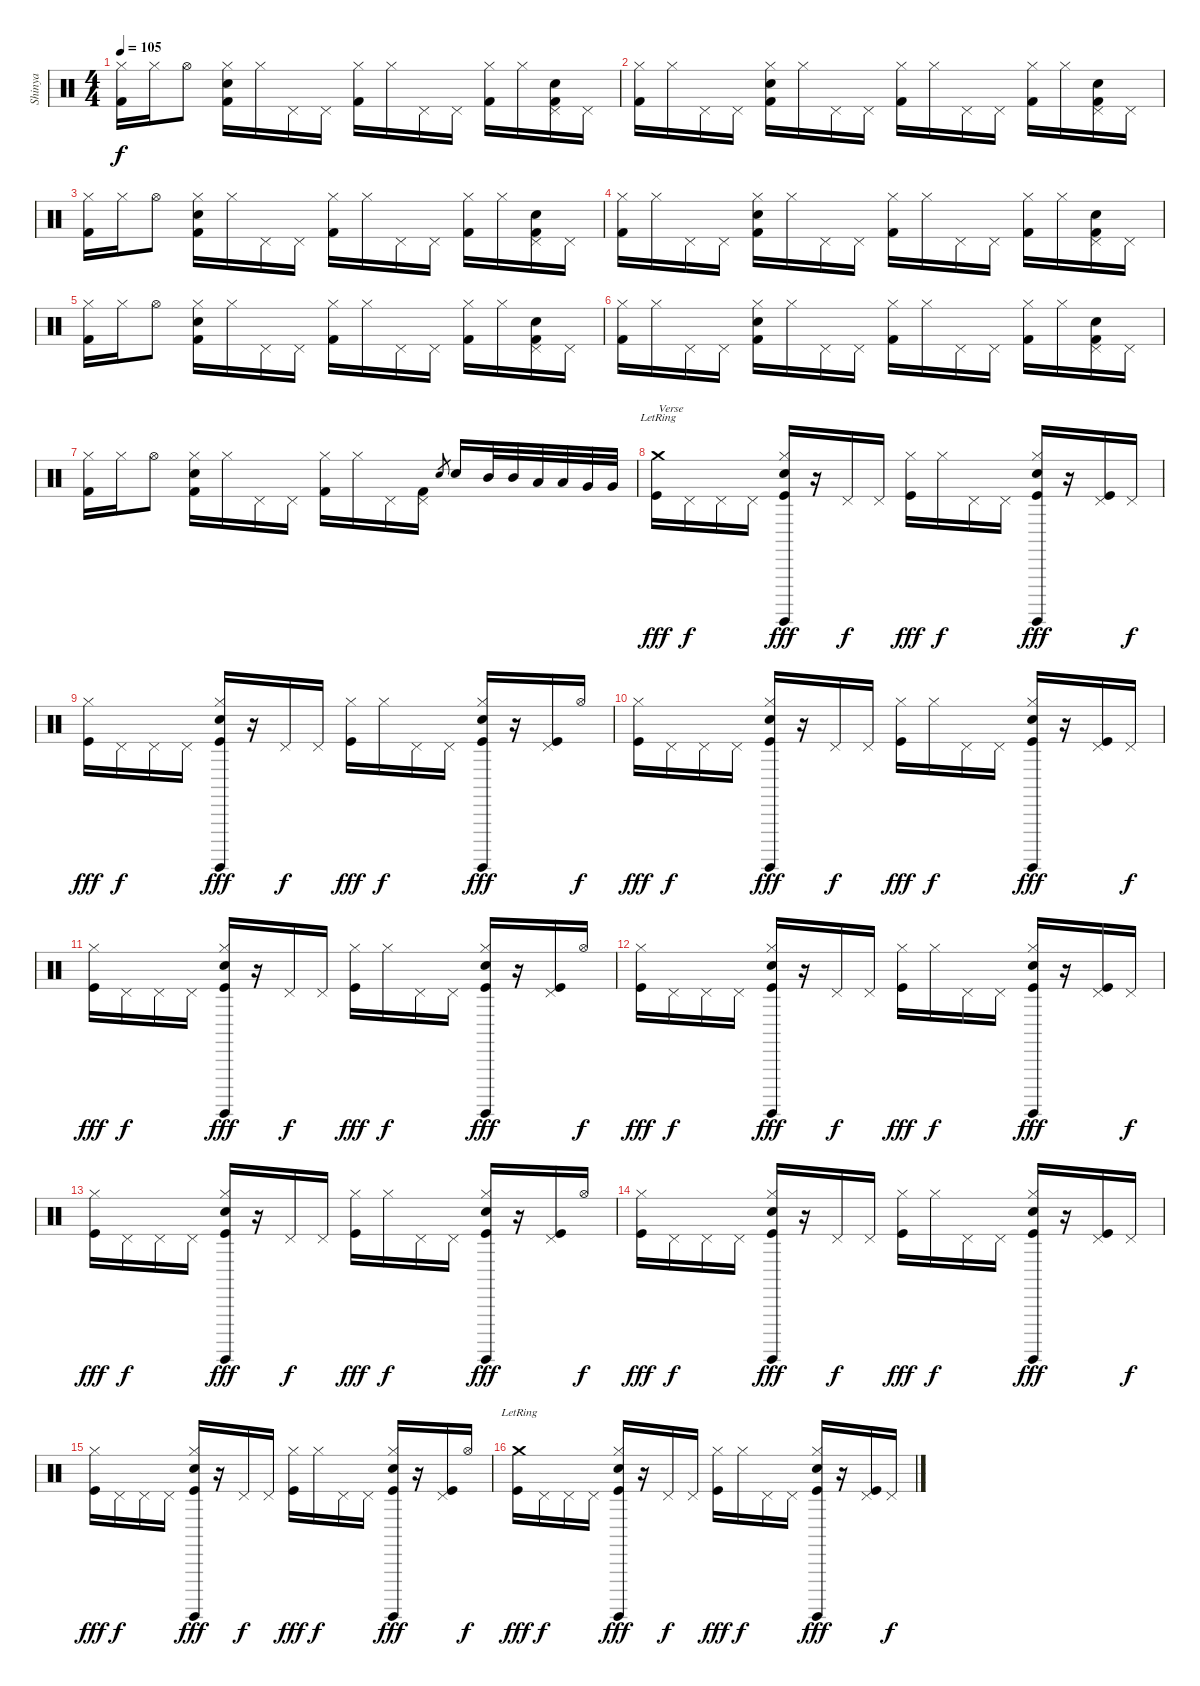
\track ("Shinya" "Shinya") {instrument percussion}
\staff {score}
\articulation defaults
\ts (4 4)
\tempo 105
\clef neutral
\ks c
("Hi-Hat (closed)" "Kick (hit) 2").16{dy f} "Hi-Hat (closed)".16 "Hi-Hat (open)".8 ("Hi-Hat (closed)" "Electric Snare (hit)" "Kick (hit) 2").16 "Hi-Hat (closed)".16 "Pedal Hi-Hat (hit)".16 "Pedal Hi-Hat (hit)".16 ("Hi-Hat (closed)" "Kick (hit) 2").16 "Hi-Hat (closed)".16 "Pedal Hi-Hat (hit)".16 "Pedal Hi-Hat (hit)".16 ("Hi-Hat (closed)" "Kick (hit) 2").16 "Hi-Hat (closed)".16 ("Pedal Hi-Hat (hit)" "Electric Snare (hit)" "Kick (hit) 2").16 "Pedal Hi-Hat (hit)".16 |
("Hi-Hat (closed)" "Kick (hit) 2").16 "Hi-Hat (closed)".16 "Pedal Hi-Hat (hit)".16 "Pedal Hi-Hat (hit)".16 ("Hi-Hat (closed)" "Electric Snare (hit)" "Kick (hit) 2").16 "Hi-Hat (closed)".16 "Pedal Hi-Hat (hit)".16 "Pedal Hi-Hat (hit)".16 ("Hi-Hat (closed)" "Kick (hit) 2").16 "Hi-Hat (closed)".16 "Pedal Hi-Hat (hit)".16 "Pedal Hi-Hat (hit)".16 ("Hi-Hat (closed)" "Kick (hit) 2").16 "Hi-Hat (closed)".16 ("Pedal Hi-Hat (hit)" "Electric Snare (hit)" "Kick (hit) 2").16 "Pedal Hi-Hat (hit)".16 |
("Hi-Hat (closed)" "Kick (hit) 2").16 "Hi-Hat (closed)".16 "Hi-Hat (open)".8 ("Hi-Hat (closed)" "Electric Snare (hit)" "Kick (hit) 2").16 "Hi-Hat (closed)".16 "Pedal Hi-Hat (hit)".16 "Pedal Hi-Hat (hit)".16 ("Hi-Hat (closed)" "Kick (hit) 2").16 "Hi-Hat (closed)".16 "Pedal Hi-Hat (hit)".16 "Pedal Hi-Hat (hit)".16 ("Hi-Hat (closed)" "Kick (hit) 2").16 "Hi-Hat (closed)".16 ("Pedal Hi-Hat (hit)" "Electric Snare (hit)" "Kick (hit) 2").16 "Pedal Hi-Hat (hit)".16 |
("Hi-Hat (closed)" "Kick (hit) 2").16 "Hi-Hat (closed)".16 "Pedal Hi-Hat (hit)".16 "Pedal Hi-Hat (hit)".16 ("Hi-Hat (closed)" "Electric Snare (hit)" "Kick (hit) 2").16 "Hi-Hat (closed)".16 "Pedal Hi-Hat (hit)".16 "Pedal Hi-Hat (hit)".16 ("Hi-Hat (closed)" "Kick (hit) 2").16 "Hi-Hat (closed)".16 "Pedal Hi-Hat (hit)".16 "Pedal Hi-Hat (hit)".16 ("Hi-Hat (closed)" "Kick (hit) 2").16 "Hi-Hat (closed)".16 ("Pedal Hi-Hat (hit)" "Electric Snare (hit)" "Kick (hit) 2").16 "Pedal Hi-Hat (hit)".16 |
("Hi-Hat (closed)" "Kick (hit) 2").16 "Hi-Hat (closed)".16 "Hi-Hat (open)".8 ("Hi-Hat (closed)" "Electric Snare (hit)" "Kick (hit) 2").16 "Hi-Hat (closed)".16 "Pedal Hi-Hat (hit)".16 "Pedal Hi-Hat (hit)".16 ("Hi-Hat (closed)" "Kick (hit) 2").16 "Hi-Hat (closed)".16 "Pedal Hi-Hat (hit)".16 "Pedal Hi-Hat (hit)".16 ("Hi-Hat (closed)" "Kick (hit) 2").16 "Hi-Hat (closed)".16 ("Pedal Hi-Hat (hit)" "Electric Snare (hit)" "Kick (hit) 2").16 "Pedal Hi-Hat (hit)".16 |
("Hi-Hat (closed)" "Kick (hit) 2").16 "Hi-Hat (closed)".16 "Pedal Hi-Hat (hit)".16 "Pedal Hi-Hat (hit)".16 ("Hi-Hat (closed)" "Electric Snare (hit)" "Kick (hit) 2").16 "Hi-Hat (closed)".16 "Pedal Hi-Hat (hit)".16 "Pedal Hi-Hat (hit)".16 ("Hi-Hat (closed)" "Kick (hit) 2").16 "Hi-Hat (closed)".16 "Pedal Hi-Hat (hit)".16 "Pedal Hi-Hat (hit)".16 ("Hi-Hat (closed)" "Kick (hit) 2").16 "Hi-Hat (closed)".16 ("Pedal Hi-Hat (hit)" "Electric Snare (hit)" "Kick (hit) 2").16 "Pedal Hi-Hat (hit)".16 |
("Hi-Hat (closed)" "Kick (hit) 2").16 "Hi-Hat (closed)".16 "Hi-Hat (open)".8 ("Hi-Hat (closed)" "Electric Snare (hit)" "Kick (hit) 2").16 "Hi-Hat (closed)".16 "Pedal Hi-Hat (hit)".16 "Pedal Hi-Hat (hit)".16 ("Hi-Hat (closed)" "Kick (hit) 2").16 "Hi-Hat (closed)".16 "Pedal Hi-Hat (hit)".16 ("Pedal Hi-Hat (hit)" "Kick (hit) 2").16 "Electric Snare (hit)".8{gr} "Electric Snare (hit)".16 "Mid Tom (hit)".32 "Mid Tom (hit)".32 "Low Tom (hit)".32 "Low Tom (hit)".32 "Very Low Tom (hit)".32 "Very Low Tom (hit)".32 |
\section ("" "")
("Crash medium (hit)"{lr} "Kick (hit)").16{txt "Verse" dy fff} "Pedal Hi-Hat (hit)".16{dy f} "Pedal Hi-Hat (hit)".16 "Pedal Hi-Hat (hit)".16 ("Hi-Hat (closed)" "Surdo (hit)" "Electric Snare (hit)" "Kick (hit)").16{dy fff} r.16 "Pedal Hi-Hat (hit)".16{dy f} "Pedal Hi-Hat (hit)".16 ("Hi-Hat (closed)" "Kick (hit)").16{dy fff} "Hi-Hat (closed)".16{dy f} "Pedal Hi-Hat (hit)".16 "Pedal Hi-Hat (hit)".16 ("Hi-Hat (closed)" "Surdo (hit)" "Electric Snare (hit)" "Kick (hit)").16{dy fff} r.16 ("Pedal Hi-Hat (hit)" "Kick (hit)").16 "Pedal Hi-Hat (hit)".16{dy f} |
("Hi-Hat (closed)" "Kick (hit)").16{dy fff} "Pedal Hi-Hat (hit)".16{dy f} "Pedal Hi-Hat (hit)".16 "Pedal Hi-Hat (hit)".16 ("Hi-Hat (closed)" "Surdo (hit)" "Electric Snare (hit)" "Kick (hit)").16{dy fff} r.16 "Pedal Hi-Hat (hit)".16{dy f} "Pedal Hi-Hat (hit)".16 ("Hi-Hat (closed)" "Kick (hit)").16{dy fff} "Hi-Hat (closed)".16{dy f} "Pedal Hi-Hat (hit)".16 "Pedal Hi-Hat (hit)".16 ("Hi-Hat (closed)" "Surdo (hit)" "Electric Snare (hit)" "Kick (hit)").16{dy fff} r.16 ("Pedal Hi-Hat (hit)" "Kick (hit)").16 "Hi-Hat (open)".16{dy f} |
("Hi-Hat (closed)" "Kick (hit)").16{dy fff} "Pedal Hi-Hat (hit)".16{dy f} "Pedal Hi-Hat (hit)".16 "Pedal Hi-Hat (hit)".16 ("Hi-Hat (closed)" "Surdo (hit)" "Electric Snare (hit)" "Kick (hit)").16{dy fff} r.16 "Pedal Hi-Hat (hit)".16{dy f} "Pedal Hi-Hat (hit)".16 ("Hi-Hat (closed)" "Kick (hit)").16{dy fff} "Hi-Hat (closed)".16{dy f} "Pedal Hi-Hat (hit)".16 "Pedal Hi-Hat (hit)".16 ("Hi-Hat (closed)" "Surdo (hit)" "Electric Snare (hit)" "Kick (hit)").16{dy fff} r.16 ("Pedal Hi-Hat (hit)" "Kick (hit)").16 "Pedal Hi-Hat (hit)".16{dy f} |
("Hi-Hat (closed)" "Kick (hit)").16{dy fff} "Pedal Hi-Hat (hit)".16{dy f} "Pedal Hi-Hat (hit)".16 "Pedal Hi-Hat (hit)".16 ("Hi-Hat (closed)" "Surdo (hit)" "Electric Snare (hit)" "Kick (hit)").16{dy fff} r.16 "Pedal Hi-Hat (hit)".16{dy f} "Pedal Hi-Hat (hit)".16 ("Hi-Hat (closed)" "Kick (hit)").16{dy fff} "Hi-Hat (closed)".16{dy f} "Pedal Hi-Hat (hit)".16 "Pedal Hi-Hat (hit)".16 ("Hi-Hat (closed)" "Surdo (hit)" "Electric Snare (hit)" "Kick (hit)").16{dy fff} r.16 ("Pedal Hi-Hat (hit)" "Kick (hit)").16 "Hi-Hat (open)".16{dy f} |
("Hi-Hat (closed)" "Kick (hit)").16{dy fff} "Pedal Hi-Hat (hit)".16{dy f} "Pedal Hi-Hat (hit)".16 "Pedal Hi-Hat (hit)".16 ("Hi-Hat (closed)" "Surdo (hit)" "Electric Snare (hit)" "Kick (hit)").16{dy fff} r.16 "Pedal Hi-Hat (hit)".16{dy f} "Pedal Hi-Hat (hit)".16 ("Hi-Hat (closed)" "Kick (hit)").16{dy fff} "Hi-Hat (closed)".16{dy f} "Pedal Hi-Hat (hit)".16 "Pedal Hi-Hat (hit)".16 ("Hi-Hat (closed)" "Surdo (hit)" "Electric Snare (hit)" "Kick (hit)").16{dy fff} r.16 ("Pedal Hi-Hat (hit)" "Kick (hit)").16 "Pedal Hi-Hat (hit)".16{dy f} |
("Hi-Hat (closed)" "Kick (hit)").16{dy fff} "Pedal Hi-Hat (hit)".16{dy f} "Pedal Hi-Hat (hit)".16 "Pedal Hi-Hat (hit)".16 ("Hi-Hat (closed)" "Surdo (hit)" "Electric Snare (hit)" "Kick (hit)").16{dy fff} r.16 "Pedal Hi-Hat (hit)".16{dy f} "Pedal Hi-Hat (hit)".16 ("Hi-Hat (closed)" "Kick (hit)").16{dy fff} "Hi-Hat (closed)".16{dy f} "Pedal Hi-Hat (hit)".16 "Pedal Hi-Hat (hit)".16 ("Hi-Hat (closed)" "Surdo (hit)" "Electric Snare (hit)" "Kick (hit)").16{dy fff} r.16 ("Pedal Hi-Hat (hit)" "Kick (hit)").16 "Hi-Hat (open)".16{dy f} |
("Hi-Hat (closed)" "Kick (hit)").16{dy fff} "Pedal Hi-Hat (hit)".16{dy f} "Pedal Hi-Hat (hit)".16 "Pedal Hi-Hat (hit)".16 ("Hi-Hat (closed)" "Surdo (hit)" "Electric Snare (hit)" "Kick (hit)").16{dy fff} r.16 "Pedal Hi-Hat (hit)".16{dy f} "Pedal Hi-Hat (hit)".16 ("Hi-Hat (closed)" "Kick (hit)").16{dy fff} "Hi-Hat (closed)".16{dy f} "Pedal Hi-Hat (hit)".16 "Pedal Hi-Hat (hit)".16 ("Hi-Hat (closed)" "Surdo (hit)" "Electric Snare (hit)" "Kick (hit)").16{dy fff} r.16 ("Pedal Hi-Hat (hit)" "Kick (hit)").16 "Pedal Hi-Hat (hit)".16{dy f} |
("Hi-Hat (closed)" "Kick (hit)").16{dy fff} "Pedal Hi-Hat (hit)".16{dy f} "Pedal Hi-Hat (hit)".16 "Pedal Hi-Hat (hit)".16 ("Hi-Hat (closed)" "Surdo (hit)" "Electric Snare (hit)" "Kick (hit)").16{dy fff} r.16 "Pedal Hi-Hat (hit)".16{dy f} "Pedal Hi-Hat (hit)".16 ("Hi-Hat (closed)" "Kick (hit)").16{dy fff} "Hi-Hat (closed)".16{dy f} "Pedal Hi-Hat (hit)".16 "Pedal Hi-Hat (hit)".16 ("Hi-Hat (closed)" "Surdo (hit)" "Electric Snare (hit)" "Kick (hit)").16{dy fff} r.16 ("Pedal Hi-Hat (hit)" "Kick (hit)").16 "Hi-Hat (open)".16{dy f} |
("Crash medium (hit)"{lr} "Kick (hit)").16{dy fff} "Pedal Hi-Hat (hit)".16{dy f} "Pedal Hi-Hat (hit)".16 "Pedal Hi-Hat (hit)".16 ("Hi-Hat (closed)" "Surdo (hit)" "Electric Snare (hit)" "Kick (hit)").16{dy fff} r.16 "Pedal Hi-Hat (hit)".16{dy f} "Pedal Hi-Hat (hit)".16 ("Hi-Hat (closed)" "Kick (hit)").16{dy fff} "Hi-Hat (closed)".16{dy f} "Pedal Hi-Hat (hit)".16 "Pedal Hi-Hat (hit)".16 ("Hi-Hat (closed)" "Surdo (hit)" "Electric Snare (hit)" "Kick (hit)").16{dy fff} r.16 ("Pedal Hi-Hat (hit)" "Kick (hit)").16 "Pedal Hi-Hat (hit)".16{dy f}
